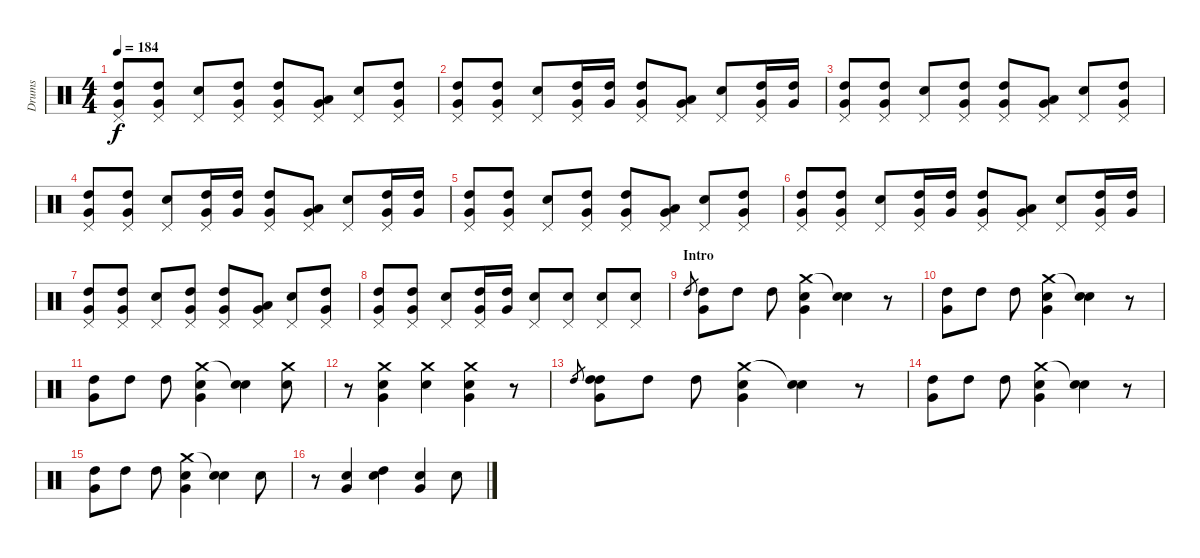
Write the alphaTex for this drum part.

\track ("Drums" "Drums") {instrument percussion}
\staff {score}
\articulation defaults
\ts (4 4)
\tempo 184
\clef neutral
\ks c
("Pedal Hi-Hat (hit)" "High Tom (hit)" "Very Low Tom (hit)").8{dy f} ("Pedal Hi-Hat (hit)" "High Tom (hit)" "Very Low Tom (hit)").8 ("Pedal Hi-Hat (hit)" "Electric Snare (hit)").8 ("Pedal Hi-Hat (hit)" "High Tom (hit)" "Very Low Tom (hit)").8 ("Pedal Hi-Hat (hit)" "High Tom (hit)" "Very Low Tom (hit)").8 ("Pedal Hi-Hat (hit)" "Low Tom (hit)" "Very Low Tom (hit)").8 ("Pedal Hi-Hat (hit)" "Electric Snare (hit)").8 ("Pedal Hi-Hat (hit)" "High Tom (hit)" "Very Low Tom (hit)").8 |
("Pedal Hi-Hat (hit)" "High Tom (hit)" "Very Low Tom (hit)").8 ("Pedal Hi-Hat (hit)" "High Tom (hit)" "Very Low Tom (hit)").8 ("Pedal Hi-Hat (hit)" "Electric Snare (hit)").8 ("Pedal Hi-Hat (hit)" "High Tom (hit)" "Very Low Tom (hit)").16 ("High Tom (hit)" "Very Low Tom (hit)").16 ("Pedal Hi-Hat (hit)" "High Tom (hit)" "Very Low Tom (hit)").8 ("Pedal Hi-Hat (hit)" "Low Tom (hit)" "Very Low Tom (hit)").8 ("Pedal Hi-Hat (hit)" "Electric Snare (hit)").8 ("Pedal Hi-Hat (hit)" "High Tom (hit)" "Very Low Tom (hit)").16 ("High Tom (hit)" "Very Low Tom (hit)").16 |
("Pedal Hi-Hat (hit)" "High Tom (hit)" "Very Low Tom (hit)").8 ("Pedal Hi-Hat (hit)" "High Tom (hit)" "Very Low Tom (hit)").8 ("Pedal Hi-Hat (hit)" "Electric Snare (hit)").8 ("Pedal Hi-Hat (hit)" "High Tom (hit)" "Very Low Tom (hit)").8 ("Pedal Hi-Hat (hit)" "High Tom (hit)" "Very Low Tom (hit)").8 ("Pedal Hi-Hat (hit)" "Low Tom (hit)" "Very Low Tom (hit)").8 ("Pedal Hi-Hat (hit)" "Electric Snare (hit)").8 ("Pedal Hi-Hat (hit)" "High Tom (hit)" "Very Low Tom (hit)").8 |
("Pedal Hi-Hat (hit)" "High Tom (hit)" "Very Low Tom (hit)").8 ("Pedal Hi-Hat (hit)" "High Tom (hit)" "Very Low Tom (hit)").8 ("Pedal Hi-Hat (hit)" "Electric Snare (hit)").8 ("Pedal Hi-Hat (hit)" "High Tom (hit)" "Very Low Tom (hit)").16 ("High Tom (hit)" "Very Low Tom (hit)").16 ("Pedal Hi-Hat (hit)" "High Tom (hit)" "Very Low Tom (hit)").8 ("Pedal Hi-Hat (hit)" "Low Tom (hit)" "Very Low Tom (hit)").8 ("Pedal Hi-Hat (hit)" "Electric Snare (hit)").8 ("Pedal Hi-Hat (hit)" "High Tom (hit)" "Very Low Tom (hit)").16 ("High Tom (hit)" "Very Low Tom (hit)").16 |
("Pedal Hi-Hat (hit)" "High Tom (hit)" "Very Low Tom (hit)").8 ("Pedal Hi-Hat (hit)" "High Tom (hit)" "Very Low Tom (hit)").8 ("Pedal Hi-Hat (hit)" "Electric Snare (hit)").8 ("Pedal Hi-Hat (hit)" "High Tom (hit)" "Very Low Tom (hit)").8 ("Pedal Hi-Hat (hit)" "High Tom (hit)" "Very Low Tom (hit)").8 ("Pedal Hi-Hat (hit)" "Low Tom (hit)" "Very Low Tom (hit)").8 ("Pedal Hi-Hat (hit)" "Electric Snare (hit)").8 ("Pedal Hi-Hat (hit)" "High Tom (hit)" "Very Low Tom (hit)").8 |
("Pedal Hi-Hat (hit)" "High Tom (hit)" "Very Low Tom (hit)").8 ("Pedal Hi-Hat (hit)" "High Tom (hit)" "Very Low Tom (hit)").8 ("Pedal Hi-Hat (hit)" "Electric Snare (hit)").8 ("Pedal Hi-Hat (hit)" "High Tom (hit)" "Very Low Tom (hit)").16 ("High Tom (hit)" "Very Low Tom (hit)").16 ("Pedal Hi-Hat (hit)" "High Tom (hit)" "Very Low Tom (hit)").8 ("Pedal Hi-Hat (hit)" "Low Tom (hit)" "Very Low Tom (hit)").8 ("Pedal Hi-Hat (hit)" "Electric Snare (hit)").8 ("Pedal Hi-Hat (hit)" "High Tom (hit)" "Very Low Tom (hit)").16 ("High Tom (hit)" "Very Low Tom (hit)").16 |
("Pedal Hi-Hat (hit)" "High Tom (hit)" "Very Low Tom (hit)").8 ("Pedal Hi-Hat (hit)" "High Tom (hit)" "Very Low Tom (hit)").8 ("Pedal Hi-Hat (hit)" "Electric Snare (hit)").8 ("Pedal Hi-Hat (hit)" "High Tom (hit)" "Very Low Tom (hit)").8 ("Pedal Hi-Hat (hit)" "High Tom (hit)" "Very Low Tom (hit)").8 ("Pedal Hi-Hat (hit)" "Low Tom (hit)" "Very Low Tom (hit)").8 ("Pedal Hi-Hat (hit)" "Electric Snare (hit)").8 ("Pedal Hi-Hat (hit)" "High Tom (hit)" "Very Low Tom (hit)").8 |
("Pedal Hi-Hat (hit)" "High Tom (hit)" "Very Low Tom (hit)").8 ("Pedal Hi-Hat (hit)" "High Tom (hit)" "Very Low Tom (hit)").8 ("Pedal Hi-Hat (hit)" "Electric Snare (hit)").8 ("Pedal Hi-Hat (hit)" "High Tom (hit)" "Very Low Tom (hit)").16 ("High Tom (hit)" "Very Low Tom (hit)").16 ("Pedal Hi-Hat (hit)" "Electric Snare (hit)").8 ("Pedal Hi-Hat (hit)" "Electric Snare (hit)").8 ("Pedal Hi-Hat (hit)" "Electric Snare (hit)").8 ("Pedal Hi-Hat (hit)" "Electric Snare (hit)").8 |
\section ("" "Intro")
"High Tom (hit)".8{gr} ("High Tom (hit)" "Very Low Tom (hit)").8 "High Tom (hit)".8 "High Tom (hit)".8 ("Crash medium (hit)" "Electric Snare (hit)" "Very Low Tom (hit)").4 ("Snare (hit)"{t} "Electric Snare (hit)").4 r.8 |
("High Tom (hit)" "Very Low Tom (hit)").8 "High Tom (hit)".8 "High Tom (hit)".8 ("Crash medium (hit)" "Electric Snare (hit)" "Very Low Tom (hit)").4 ("Snare (hit)"{t} "Electric Snare (hit)").4 r.8 |
("High Tom (hit)" "Very Low Tom (hit)").8 "High Tom (hit)".8 "High Tom (hit)".8 ("Crash medium (hit)" "Electric Snare (hit)" "Very Low Tom (hit)").4 ("Snare (hit)"{t} "Electric Snare (hit)").4 ("Crash medium (hit)" "Electric Snare (hit)").8 |
r.8 ("Crash medium (hit)" "Electric Snare (hit)" "Very Low Tom (hit)").4 ("Crash medium (hit)" "Snare (hit) 2").4 ("Crash medium (hit)" "Electric Snare (hit)" "Very Low Tom (hit)").4 r.8 |
"High Tom (hit)".8{gr} ("High Tom (hit)" "High Tom (hit)" "Very Low Tom (hit)").8 "High Tom (hit)".8 "High Tom (hit)".8 ("Crash medium (hit)" "Electric Snare (hit)" "Very Low Tom (hit)").4 ("Snare (hit)"{t} "Electric Snare (hit)").4 r.8 |
("High Tom (hit)" "Very Low Tom (hit)").8 "High Tom (hit)".8 "High Tom (hit)".8 ("Crash medium (hit)" "Electric Snare (hit)" "Very Low Tom (hit)").4 ("Snare (hit)"{t} "Electric Snare (hit)").4 r.8 |
("High Tom (hit)" "Very Low Tom (hit)").8 "High Tom (hit)".8 "High Tom (hit)".8 ("Crash medium (hit)" "Electric Snare (hit)" "Very Low Tom (hit)").4 ("Snare (hit)"{t} "Electric Snare (hit)").4 "Electric Snare (hit)".8 |
r.8 ("Electric Snare (hit)" "Very Low Tom (hit)").4 ("Snare (hit) 2" "High Tom (hit)").4 ("Electric Snare (hit)" "Very Low Tom (hit)").4 "Electric Snare (hit)".8
